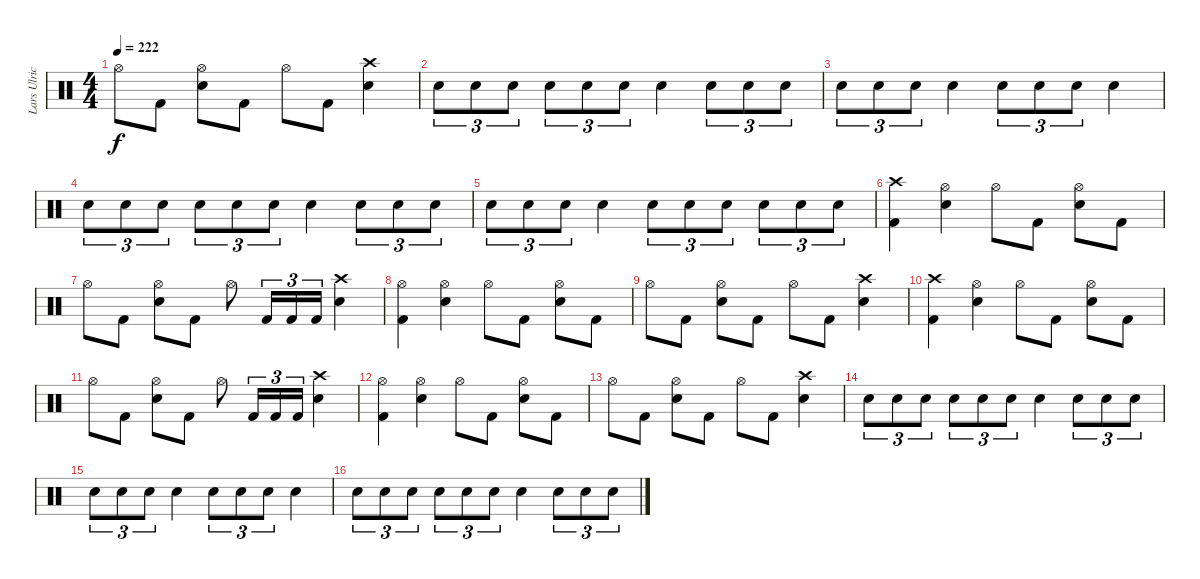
\track ("Lars Ulrich" "Lars Ulric") {instrument percussion}
\staff {score}
\articulation defaults
\ts (4 4)
\tempo 222
\clef neutral
\ks c "Hi-Hat (open)".8{dy f} "Kick (hit) 2".8
("Hi-Hat (open)" "Electric Snare (hit)").8 "Kick (hit) 2".8 "Hi-Hat (open)".8 "Kick (hit) 2".8 ("Crash high (hit)" "Electric Snare (hit)").4 |
"Electric Snare (hit)".8{tu (3 2)} "Electric Snare (hit)".8{tu (3 2)} "Electric Snare (hit)".8{tu (3 2)} "Electric Snare (hit)".8{tu (3 2)} "Electric Snare (hit)".8{tu (3 2)} "Electric Snare (hit)".8{tu (3 2)} "Electric Snare (hit)".4 "Electric Snare (hit)".8{tu (3 2)} "Electric Snare (hit)".8{tu (3 2)} "Electric Snare (hit)".8{tu (3 2)} |
"Electric Snare (hit)".8{tu (3 2)} "Electric Snare (hit)".8{tu (3 2)} "Electric Snare (hit)".8{tu (3 2)} "Electric Snare (hit)".4 "Electric Snare (hit)".8{tu (3 2)} "Electric Snare (hit)".8{tu (3 2)} "Electric Snare (hit)".8{tu (3 2)} "Electric Snare (hit)".4 |
"Electric Snare (hit)".8{tu (3 2)} "Electric Snare (hit)".8{tu (3 2)} "Electric Snare (hit)".8{tu (3 2)} "Electric Snare (hit)".8{tu (3 2)} "Electric Snare (hit)".8{tu (3 2)} "Electric Snare (hit)".8{tu (3 2)} "Electric Snare (hit)".4 "Electric Snare (hit)".8{tu (3 2)} "Electric Snare (hit)".8{tu (3 2)} "Electric Snare (hit)".8{tu (3 2)} |
"Electric Snare (hit)".8{tu (3 2)} "Electric Snare (hit)".8{tu (3 2)} "Electric Snare (hit)".8{tu (3 2)} "Electric Snare (hit)".4 "Electric Snare (hit)".8{tu (3 2)} "Electric Snare (hit)".8{tu (3 2)} "Electric Snare (hit)".8{tu (3 2)} "Electric Snare (hit)".8{tu (3 2)} "Electric Snare (hit)".8{tu (3 2)} "Electric Snare (hit)".8{tu (3 2)} |
("Crash high (hit)" "Kick (hit) 2").4 ("Hi-Hat (open)" "Electric Snare (hit)").4 "Hi-Hat (open)".8 "Kick (hit) 2".8 ("Hi-Hat (open)" "Electric Snare (hit)").8 "Kick (hit) 2".8 |
"Hi-Hat (open)".8 "Kick (hit) 2".8 ("Hi-Hat (open)" "Electric Snare (hit)").8 "Kick (hit) 2".8 "Hi-Hat (open)".8 "Kick (hit) 2".16{tu (3 2)} "Kick (hit) 2".16{tu (3 2)} "Kick (hit) 2".16{tu (3 2)} ("Crash high (hit)" "Electric Snare (hit)").4 |
("Hi-Hat (open)" "Kick (hit) 2").4 ("Hi-Hat (open)" "Electric Snare (hit)").4 "Hi-Hat (open)".8 "Kick (hit) 2".8 ("Hi-Hat (open)" "Electric Snare (hit)").8 "Kick (hit) 2".8 |
"Hi-Hat (open)".8 "Kick (hit) 2".8 ("Hi-Hat (open)" "Electric Snare (hit)").8 "Kick (hit) 2".8 "Hi-Hat (open)".8 "Kick (hit) 2".8 ("Crash high (hit)" "Electric Snare (hit)").4 |
("Crash high (hit)" "Kick (hit) 2").4 ("Hi-Hat (open)" "Electric Snare (hit)").4 "Hi-Hat (open)".8 "Kick (hit) 2".8 ("Hi-Hat (open)" "Electric Snare (hit)").8 "Kick (hit) 2".8 |
"Hi-Hat (open)".8 "Kick (hit) 2".8 ("Hi-Hat (open)" "Electric Snare (hit)").8 "Kick (hit) 2".8 "Hi-Hat (open)".8 "Kick (hit) 2".16{tu (3 2)} "Kick (hit) 2".16{tu (3 2)} "Kick (hit) 2".16{tu (3 2)} ("Crash high (hit)" "Electric Snare (hit)").4 |
("Hi-Hat (open)" "Kick (hit) 2").4 ("Hi-Hat (open)" "Electric Snare (hit)").4 "Hi-Hat (open)".8 "Kick (hit) 2".8 ("Hi-Hat (open)" "Electric Snare (hit)").8 "Kick (hit) 2".8 |
"Hi-Hat (open)".8 "Kick (hit) 2".8 ("Hi-Hat (open)" "Electric Snare (hit)").8 "Kick (hit) 2".8 "Hi-Hat (open)".8 "Kick (hit) 2".8 ("Crash high (hit)" "Electric Snare (hit)").4 |
"Electric Snare (hit)".8{tu (3 2)} "Electric Snare (hit)".8{tu (3 2)} "Electric Snare (hit)".8{tu (3 2)} "Electric Snare (hit)".8{tu (3 2)} "Electric Snare (hit)".8{tu (3 2)} "Electric Snare (hit)".8{tu (3 2)} "Electric Snare (hit)".4 "Electric Snare (hit)".8{tu (3 2)} "Electric Snare (hit)".8{tu (3 2)} "Electric Snare (hit)".8{tu (3 2)} |
"Electric Snare (hit)".8{tu (3 2)} "Electric Snare (hit)".8{tu (3 2)} "Electric Snare (hit)".8{tu (3 2)} "Electric Snare (hit)".4 "Electric Snare (hit)".8{tu (3 2)} "Electric Snare (hit)".8{tu (3 2)} "Electric Snare (hit)".8{tu (3 2)} "Electric Snare (hit)".4 |
"Electric Snare (hit)".8{tu (3 2)} "Electric Snare (hit)".8{tu (3 2)} "Electric Snare (hit)".8{tu (3 2)} "Electric Snare (hit)".8{tu (3 2)} "Electric Snare (hit)".8{tu (3 2)} "Electric Snare (hit)".8{tu (3 2)} "Electric Snare (hit)".4 "Electric Snare (hit)".8{tu (3 2)} "Electric Snare (hit)".8{tu (3 2)} "Electric Snare (hit)".8{tu (3 2)}
